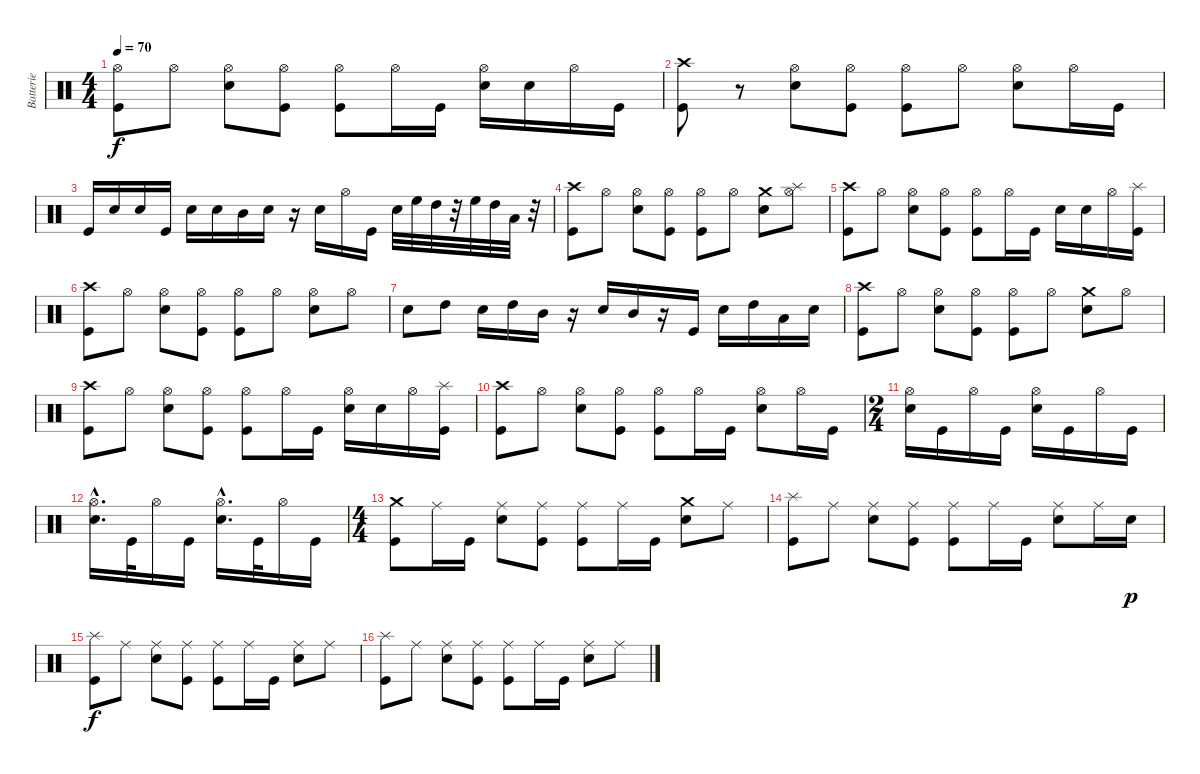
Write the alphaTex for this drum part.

\track ("Batterie" "Batterie") {instrument percussion}
\staff {score}
\articulation defaults
\ts (4 4)
\tempo 70
\clef neutral
\ks c
("Hi-Hat (open)" "Kick (hit)").8{dy f} "Hi-Hat (open)".8 ("Hi-Hat (open)" "Snare (hit) 2").8 ("Hi-Hat (open)" "Kick (hit)").8 ("Hi-Hat (open)" "Kick (hit)").8 "Hi-Hat (open)".16 "Kick (hit)".16 ("Hi-Hat (open)" "Snare (hit) 2").16 "Snare (hit) 2".16 "Hi-Hat (open)".16 "Kick (hit)".16 |
("Crash high (hit)" "Kick (hit)").8 r.8 ("Hi-Hat (open)" "Snare (hit) 2").8 ("Hi-Hat (open)" "Kick (hit)").8 ("Hi-Hat (open)" "Kick (hit)").8 "Hi-Hat (open)".8 ("Hi-Hat (open)" "Snare (hit) 2").8 "Hi-Hat (open)".16 "Kick (hit)".16 |
"Kick (hit)".16 "Snare (hit) 2".16 "Snare (hit) 2".16 "Kick (hit)".16 "Snare (hit) 2".16 "Snare (hit) 2".16 "Mid Tom (hit)".16 "Snare (hit) 2".16 r.16 "Snare (hit) 2".16 "Hi-Hat (open)".16 "Kick (hit)".16 "Snare (hit) 2".32 "High Floor Tom (hit)".32 "High Tom (hit)".32 r.32 "High Floor Tom (hit)".32 "High Tom (hit)".32 "Low Tom (hit)".32 r.32 |
("Crash high (hit)" "Kick (hit)").8 "Hi-Hat (open)".8 ("Hi-Hat (open)" "Snare (hit) 2").8 ("Hi-Hat (open)" "Kick (hit)").8 ("Hi-Hat (open)" "Kick (hit)").8 "Hi-Hat (open)".8 ("Crash medium (hit)" "Snare (hit) 2").8 ("Hi-Hat (open)" "Splash (hit)").8 |
("Crash high (hit)" "Kick (hit)").8 "Hi-Hat (open)".8 ("Hi-Hat (open)" "Snare (hit) 2").8 ("Hi-Hat (open)" "Kick (hit)").8 ("Hi-Hat (open)" "Kick (hit)").8 "Hi-Hat (open)".16 "Kick (hit)".16 "Snare (hit) 2".16 "Snare (hit) 2".16 "Hi-Hat (open)".16 ("Splash (hit)" "Kick (hit)").16 |
("Crash high (hit)" "Kick (hit)").8 "Hi-Hat (open)".8 ("Hi-Hat (open)" "Snare (hit) 2").8 ("Hi-Hat (open)" "Kick (hit)").8 ("Hi-Hat (open)" "Kick (hit)").8 "Hi-Hat (open)".8 ("Hi-Hat (open)" "Snare (hit) 2").8 "Hi-Hat (open)".8 |
"Snare (hit) 2".8 "High Tom (hit)".8 "Snare (hit) 2".16 "High Tom (hit)".16 "Mid Tom (hit)".16 r.16 "Snare (hit) 2".16 "Mid Tom (hit)".16 r.16 "Kick (hit)".16 "Snare (hit) 2".16 "High Tom (hit)".16 "Low Tom (hit)".16 "Snare (hit) 2".16 |
("Crash high (hit)" "Kick (hit)").8 "Hi-Hat (open)".8 ("Hi-Hat (open)" "Snare (hit) 2").8 ("Hi-Hat (open)" "Kick (hit)").8 ("Hi-Hat (open)" "Kick (hit)").8 "Hi-Hat (open)".8 ("Crash medium (hit)" "Snare (hit) 2").8 "Hi-Hat (open)".8 |
("Crash high (hit)" "Kick (hit)").8 "Hi-Hat (open)".8 ("Hi-Hat (open)" "Snare (hit) 2").8 ("Hi-Hat (open)" "Kick (hit)").8 ("Hi-Hat (open)" "Kick (hit)").8 "Hi-Hat (open)".16 "Kick (hit)".16 ("Hi-Hat (open)" "Snare (hit) 2").16 "Snare (hit) 2".16 "Hi-Hat (open)".16 ("Splash (hit)" "Kick (hit)").16 |
("Crash high (hit)" "Kick (hit)").8 "Hi-Hat (open)".8 ("Hi-Hat (open)" "Snare (hit) 2").8 ("Hi-Hat (open)" "Kick (hit)").8 ("Hi-Hat (open)" "Kick (hit)").8 "Hi-Hat (open)".16 "Kick (hit)".16 ("Hi-Hat (open)" "Snare (hit) 2").8 "Hi-Hat (open)".16 "Kick (hit)".16 |
\ts (2 4)
("Hi-Hat (open)" "Snare (hit) 2").16 "Kick (hit)".16 "Hi-Hat (open)".16 "Kick (hit)".16 ("Hi-Hat (open)" "Snare (hit) 2").16 "Kick (hit)".16 "Hi-Hat (open)".16 "Kick (hit)".16 |
("Hi-Hat (open)"{hac} "Snare (hit) 2"{hac}).16{d} "Kick (hit)".32 "Hi-Hat (open)".16 "Kick (hit)".16 ("Hi-Hat (open)"{hac} "Snare (hit) 2"{hac}).16{d} "Kick (hit)".32 "Hi-Hat (open)".16 "Kick (hit)".16 |
\ts (4 4)
("Crash medium (hit)" "Kick (hit)").8 "Ride (middle)".16 "Kick (hit)".16 ("Ride (middle)" "Snare (hit) 2").8 ("Ride (middle)" "Kick (hit)").8 ("Ride (middle)" "Kick (hit)").8 "Ride (middle)".16 "Kick (hit)".16 ("Crash medium (hit)" "Snare (hit) 2").8 "Ride (middle)".8 |
("Splash (hit)" "Kick (hit)").8 "Ride (middle)".8 ("Ride (middle)" "Snare (hit) 2").8 ("Ride (middle)" "Kick (hit)").8 ("Ride (middle)" "Kick (hit)").8 "Ride (middle)".16 "Kick (hit)".16 ("Ride (middle)" "Snare (hit) 2").8 "Ride (middle)".16 "Snare (hit) 2".16{dy p} |
("Splash (hit)" "Kick (hit)").8{dy f} "Ride (middle)".8 ("Ride (middle)" "Snare (hit) 2").8 ("Ride (middle)" "Kick (hit)").8 ("Ride (middle)" "Kick (hit)").8 "Ride (middle)".16 "Kick (hit)".16 ("Ride (middle)" "Snare (hit) 2").8 "Ride (middle)".8 |
("Splash (hit)" "Kick (hit)").8 "Ride (middle)".8 ("Ride (middle)" "Snare (hit) 2").8 ("Ride (middle)" "Kick (hit)").8 ("Ride (middle)" "Kick (hit)").8 "Ride (middle)".16 "Kick (hit)".16 ("Ride (middle)" "Snare (hit) 2").8 "Ride (middle)".8
